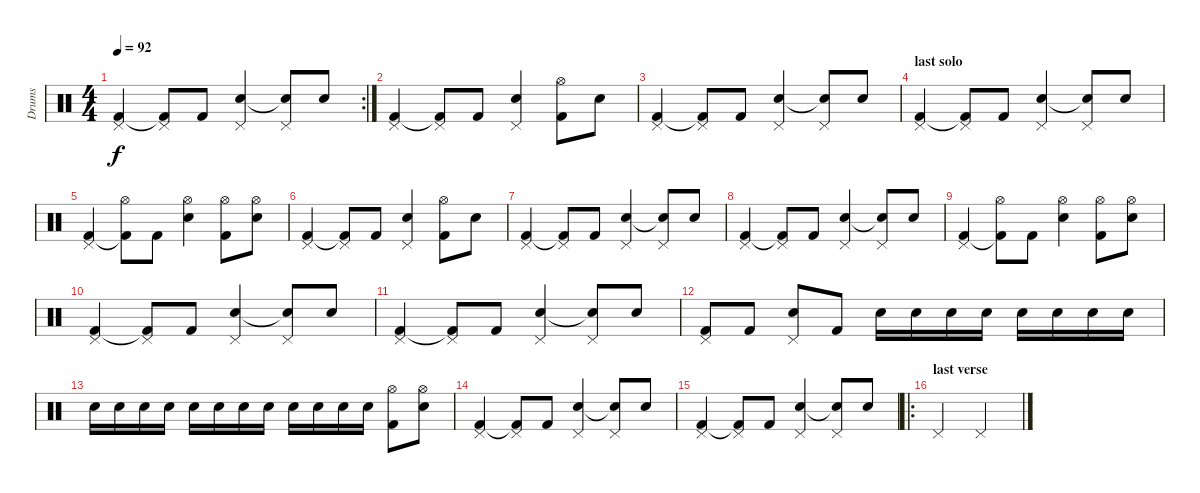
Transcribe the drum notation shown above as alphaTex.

\track ("Drums" "Drums") {instrument percussion}
\staff {score}
\articulation defaults
\rc 2
\ts (4 4)
\tempo 92
\clef neutral
\ks c
("Pedal Hi-Hat (hit)" "Kick (hit) 2").4{dy f} ("Pedal Hi-Hat (hit)" "Kick (hit) 2"{t}).8 "Kick (hit) 2".8 ("Pedal Hi-Hat (hit)" "Snare (hit) 2").4 ("Pedal Hi-Hat (hit)" "Snare (hit)"{t}).8 "Snare (hit) 2".8 |
("Pedal Hi-Hat (hit)" "Kick (hit) 2").4 ("Pedal Hi-Hat (hit)" "Kick (hit) 2"{t}).8 "Kick (hit) 2".8 ("Pedal Hi-Hat (hit)" "Snare (hit) 2").4 ("Hi-Hat (open)" "Kick (hit) 2").8 "Snare (hit) 2".8 |
("Pedal Hi-Hat (hit)" "Kick (hit) 2").4 ("Pedal Hi-Hat (hit)" "Kick (hit) 2"{t}).8 "Kick (hit) 2".8 ("Pedal Hi-Hat (hit)" "Snare (hit) 2").4 ("Pedal Hi-Hat (hit)" "Snare (hit)"{t}).8 "Snare (hit) 2".8 |
\section ("" "last solo")
("Pedal Hi-Hat (hit)" "Kick (hit) 2").4 ("Pedal Hi-Hat (hit)" "Kick (hit) 2"{t}).8 "Kick (hit) 2".8 ("Pedal Hi-Hat (hit)" "Snare (hit) 2").4 ("Pedal Hi-Hat (hit)" "Snare (hit)"{t}).8 "Snare (hit) 2".8 |
("Pedal Hi-Hat (hit)" "Kick (hit) 2").4 ("Hi-Hat (open)" "Kick (hit) 2"{t}).8 "Kick (hit) 2".8 ("Hi-Hat (open)" "Snare (hit) 2").4 ("Hi-Hat (open)" "Kick (hit) 2").8 ("Hi-Hat (open)" "Snare (hit) 2").8 |
("Pedal Hi-Hat (hit)" "Kick (hit) 2").4 ("Pedal Hi-Hat (hit)" "Kick (hit) 2"{t}).8 "Kick (hit) 2".8 ("Pedal Hi-Hat (hit)" "Snare (hit) 2").4 ("Hi-Hat (open)" "Kick (hit) 2").8 "Snare (hit) 2".8 |
("Pedal Hi-Hat (hit)" "Kick (hit) 2").4 ("Pedal Hi-Hat (hit)" "Kick (hit) 2"{t}).8 "Kick (hit) 2".8 ("Pedal Hi-Hat (hit)" "Snare (hit) 2").4 ("Pedal Hi-Hat (hit)" "Snare (hit)"{t}).8 "Snare (hit) 2".8 |
("Pedal Hi-Hat (hit)" "Kick (hit) 2").4 ("Pedal Hi-Hat (hit)" "Kick (hit) 2"{t}).8 "Kick (hit) 2".8 ("Pedal Hi-Hat (hit)" "Snare (hit) 2").4 ("Pedal Hi-Hat (hit)" "Snare (hit)"{t}).8 "Snare (hit) 2".8 |
("Pedal Hi-Hat (hit)" "Kick (hit) 2").4 ("Hi-Hat (open)" "Kick (hit) 2"{t}).8 "Kick (hit) 2".8 ("Hi-Hat (open)" "Snare (hit) 2").4 ("Hi-Hat (open)" "Kick (hit) 2").8 ("Hi-Hat (open)" "Snare (hit) 2").8 |
("Pedal Hi-Hat (hit)" "Kick (hit) 2").4 ("Pedal Hi-Hat (hit)" "Kick (hit) 2"{t}).8 "Kick (hit) 2".8 ("Pedal Hi-Hat (hit)" "Snare (hit) 2").4 ("Pedal Hi-Hat (hit)" "Snare (hit)"{t}).8 "Snare (hit) 2".8 |
("Pedal Hi-Hat (hit)" "Kick (hit) 2").4 ("Pedal Hi-Hat (hit)" "Kick (hit) 2"{t}).8 "Kick (hit) 2".8 ("Pedal Hi-Hat (hit)" "Snare (hit) 2").4 ("Pedal Hi-Hat (hit)" "Snare (hit)"{t}).8 "Snare (hit) 2".8 |
("Pedal Hi-Hat (hit)" "Kick (hit) 2").8 "Kick (hit) 2".8 ("Pedal Hi-Hat (hit)" "Snare (hit) 2").8 "Kick (hit) 2".8 "Snare (hit) 2".16 "Snare (hit) 2".16 "Snare (hit) 2".16 "Snare (hit) 2".16 "Snare (hit) 2".16 "Snare (hit) 2".16 "Snare (hit) 2".16 "Snare (hit) 2".16 |
"Snare (hit) 2".16 "Snare (hit) 2".16 "Snare (hit) 2".16 "Snare (hit) 2".16 "Snare (hit) 2".16 "Snare (hit) 2".16 "Snare (hit) 2".16 "Snare (hit) 2".16 "Snare (hit) 2".16 "Snare (hit) 2".16 "Snare (hit) 2".16 "Snare (hit) 2".16 ("Hi-Hat (open)" "Kick (hit) 2").8 ("Hi-Hat (open)" "Snare (hit) 2").8 |
("Pedal Hi-Hat (hit)" "Kick (hit) 2").4 ("Pedal Hi-Hat (hit)" "Kick (hit) 2"{t}).8 "Kick (hit) 2".8 ("Pedal Hi-Hat (hit)" "Snare (hit) 2").4 ("Pedal Hi-Hat (hit)" "Snare (hit)"{t}).8 "Snare (hit) 2".8 |
("Pedal Hi-Hat (hit)" "Kick (hit) 2").4 ("Pedal Hi-Hat (hit)" "Kick (hit) 2"{t}).8 "Kick (hit) 2".8 ("Pedal Hi-Hat (hit)" "Snare (hit) 2").4 ("Pedal Hi-Hat (hit)" "Snare (hit)"{t}).8 "Snare (hit) 2".8 |
\ro
\section ("" "last verse")
"Pedal Hi-Hat (hit)".2 "Pedal Hi-Hat (hit)".2
